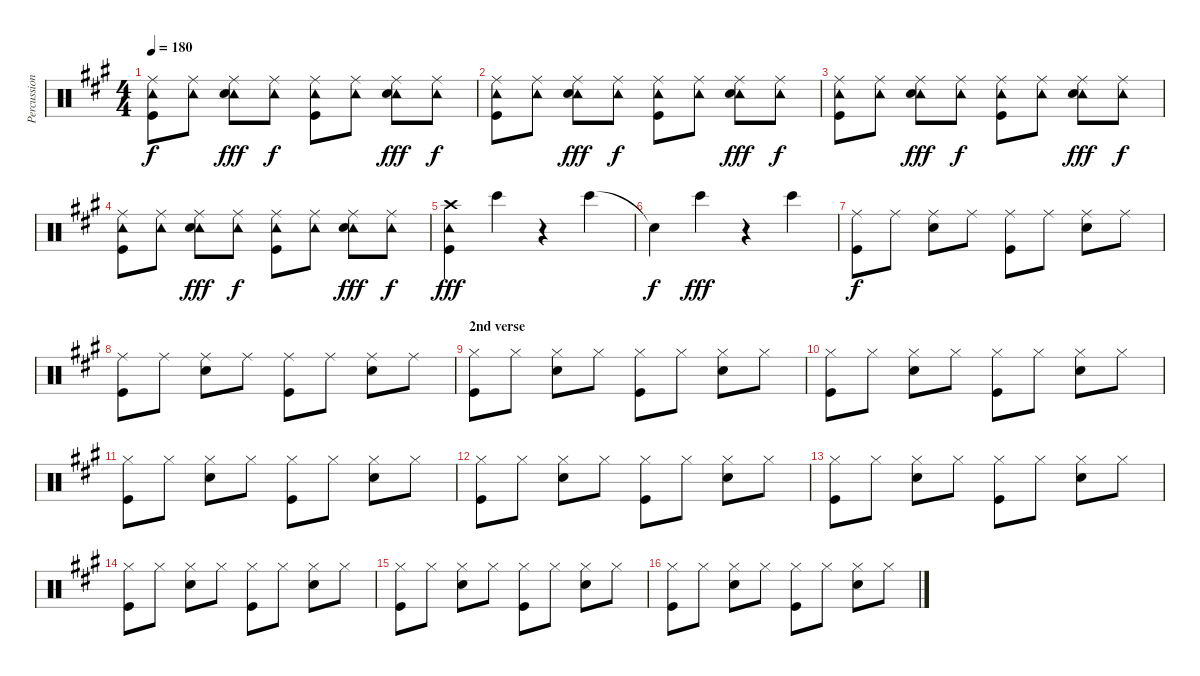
\track ("Percussion" "Percussion") {instrument percussion}
\staff {score}
\articulation defaults
\ts (4 4)
\tempo 180
\clef neutral
\ks a
("Ride (middle)" "Tambourine (hit)" "Kick (hit)").8{dy f} ("Ride (middle)" "Tambourine (hit)").8 ("Ride (middle)" "Tambourine (hit)" "Snare (hit) 2").8{dy fff} ("Ride (middle)" "Tambourine (hit)").8{dy f} ("Ride (middle)" "Tambourine (hit)" "Kick (hit)").8 ("Ride (middle)" "Tambourine (hit)").8 ("Ride (middle)" "Tambourine (hit)" "Snare (hit) 2").8{dy fff} ("Ride (middle)" "Tambourine (hit)").8{dy f} |
("Ride (middle)" "Tambourine (hit)" "Kick (hit)").8 ("Ride (middle)" "Tambourine (hit)").8 ("Ride (middle)" "Tambourine (hit)" "Snare (hit) 2").8{dy fff} ("Ride (middle)" "Tambourine (hit)").8{dy f} ("Ride (middle)" "Tambourine (hit)" "Kick (hit)").8 ("Ride (middle)" "Tambourine (hit)").8 ("Ride (middle)" "Tambourine (hit)" "Snare (hit) 2").8{dy fff} ("Ride (middle)" "Tambourine (hit)").8{dy f} |
("Ride (middle)" "Tambourine (hit)" "Kick (hit)").8 ("Ride (middle)" "Tambourine (hit)").8 ("Ride (middle)" "Tambourine (hit)" "Snare (hit) 2").8{dy fff} ("Ride (middle)" "Tambourine (hit)").8{dy f} ("Ride (middle)" "Tambourine (hit)" "Kick (hit)").8 ("Ride (middle)" "Tambourine (hit)").8 ("Ride (middle)" "Tambourine (hit)" "Snare (hit) 2").8{dy fff} ("Ride (middle)" "Tambourine (hit)").8{dy f} |
("Ride (middle)" "Tambourine (hit)" "Kick (hit)").8 ("Ride (middle)" "Tambourine (hit)").8 ("Ride (middle)" "Tambourine (hit)" "Snare (hit) 2").8{dy fff} ("Ride (middle)" "Tambourine (hit)").8{dy f} ("Ride (middle)" "Tambourine (hit)" "Kick (hit)").8 ("Ride (middle)" "Tambourine (hit)").8 ("Ride (middle)" "Tambourine (hit)" "Snare (hit) 2").8{dy fff} ("Ride (middle)" "Tambourine (hit)").8{dy f} |
("Crash high (hit)" "Tambourine (hit)" "Kick (hit)").4{dy fff} "Bongo High (hit)".4 r.4 "Bongo High (hit)".4 |
"Snare (hit)"{t}.4{dy f} "Bongo High (hit)".4{dy fff} r.4 "Bongo High (hit)".4 |
("Ride (middle)" "Kick (hit)").8{dy f} "Ride (middle)".8 ("Ride (middle)" "Snare (hit) 2").8 "Ride (middle)".8 ("Ride (middle)" "Kick (hit)").8 "Ride (middle)".8 ("Ride (middle)" "Snare (hit) 2").8 "Ride (middle)".8 |
("Ride (middle)" "Kick (hit)").8 "Ride (middle)".8 ("Ride (middle)" "Snare (hit) 2").8 "Ride (middle)".8 ("Ride (middle)" "Kick (hit)").8 "Ride (middle)".8 ("Ride (middle)" "Snare (hit) 2").8 "Ride (middle)".8 |
\section ("" "2nd verse")
("Hi-Hat (closed)" "Kick (hit)").8 "Hi-Hat (closed)".8 ("Hi-Hat (closed)" "Snare (hit) 2").8 "Hi-Hat (closed)".8 ("Hi-Hat (closed)" "Kick (hit)").8 "Hi-Hat (closed)".8 ("Hi-Hat (closed)" "Snare (hit) 2").8 "Hi-Hat (closed)".8 |
("Hi-Hat (closed)" "Kick (hit)").8 "Hi-Hat (closed)".8 ("Hi-Hat (closed)" "Snare (hit) 2").8 "Hi-Hat (closed)".8 ("Hi-Hat (closed)" "Kick (hit)").8 "Hi-Hat (closed)".8 ("Hi-Hat (closed)" "Snare (hit) 2").8 "Hi-Hat (closed)".8 |
("Hi-Hat (closed)" "Kick (hit)").8 "Hi-Hat (closed)".8 ("Hi-Hat (closed)" "Snare (hit) 2").8 "Hi-Hat (closed)".8 ("Hi-Hat (closed)" "Kick (hit)").8 "Hi-Hat (closed)".8 ("Hi-Hat (closed)" "Snare (hit) 2").8 "Hi-Hat (closed)".8 |
("Hi-Hat (closed)" "Kick (hit)").8 "Hi-Hat (closed)".8 ("Hi-Hat (closed)" "Snare (hit) 2").8 "Hi-Hat (closed)".8 ("Hi-Hat (closed)" "Kick (hit)").8 "Hi-Hat (closed)".8 ("Hi-Hat (closed)" "Snare (hit) 2").8 "Hi-Hat (closed)".8 |
("Hi-Hat (closed)" "Kick (hit)").8 "Hi-Hat (closed)".8 ("Hi-Hat (closed)" "Snare (hit) 2").8 "Hi-Hat (closed)".8 ("Hi-Hat (closed)" "Kick (hit)").8 "Hi-Hat (closed)".8 ("Hi-Hat (closed)" "Snare (hit) 2").8 "Hi-Hat (closed)".8 |
("Hi-Hat (closed)" "Kick (hit)").8 "Hi-Hat (closed)".8 ("Hi-Hat (closed)" "Snare (hit) 2").8 "Hi-Hat (closed)".8 ("Hi-Hat (closed)" "Kick (hit)").8 "Hi-Hat (closed)".8 ("Hi-Hat (closed)" "Snare (hit) 2").8 "Hi-Hat (closed)".8 |
("Hi-Hat (closed)" "Kick (hit)").8 "Hi-Hat (closed)".8 ("Hi-Hat (closed)" "Snare (hit) 2").8 "Hi-Hat (closed)".8 ("Hi-Hat (closed)" "Kick (hit)").8 "Hi-Hat (closed)".8 ("Hi-Hat (closed)" "Snare (hit) 2").8 "Hi-Hat (closed)".8 |
("Hi-Hat (closed)" "Kick (hit)").8 "Hi-Hat (closed)".8 ("Hi-Hat (closed)" "Snare (hit) 2").8 "Hi-Hat (closed)".8 ("Hi-Hat (closed)" "Kick (hit)").8 "Hi-Hat (closed)".8 ("Hi-Hat (closed)" "Snare (hit) 2").8 "Hi-Hat (closed)".8
